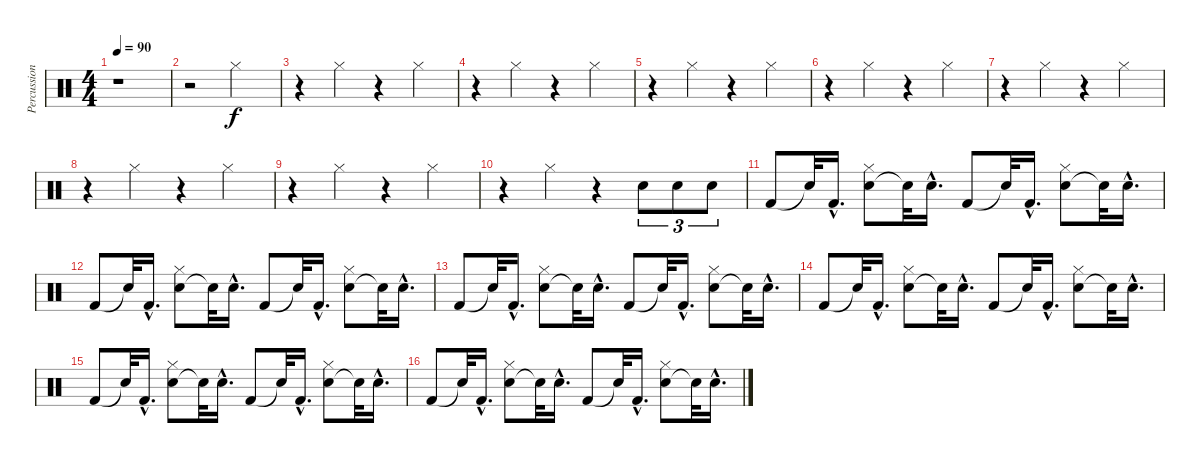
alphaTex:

\track ("Percussions" "Percussion") {instrument percussion}
\staff {score}
\articulation defaults
\ts (4 4)
\tempo 90
\clef neutral
\ks c
r.1{dy f} |
r.2 "Hi-Hat (closed)".2 |
r.4 "Hi-Hat (closed)".4 r.4 "Hi-Hat (closed)".4 |
r.4 "Hi-Hat (closed)".4 r.4 "Hi-Hat (closed)".4 |
r.4 "Hi-Hat (closed)".4 r.4 "Hi-Hat (closed)".4 |
r.4 "Hi-Hat (closed)".4 r.4 "Hi-Hat (closed)".4 |
r.4 "Hi-Hat (closed)".4 r.4 "Hi-Hat (closed)".4 |
r.4 "Hi-Hat (closed)".4 r.4 "Hi-Hat (closed)".4 |
r.4 "Hi-Hat (closed)".4 r.4 "Hi-Hat (closed)".4 |
r.4 "Hi-Hat (closed)".4 r.4 "Snare (hit) 2".8{tu (3 2)} "Snare (hit) 2".8{tu (3 2)} "Snare (hit) 2".8{tu (3 2)} |
"Kick (hit) 2".8 "Snare (hit)"{t}.32 "Kick (hit) 2"{hac}.16{d} ("Snare (hit) 2" "Hi-Hat (closed)").8 "Snare (hit)"{t}.32 "Snare (hit) 2"{hac}.16{d} "Kick (hit) 2".8 "Snare (hit)"{t}.32 "Kick (hit) 2"{hac}.16{d} ("Snare (hit) 2" "Hi-Hat (closed)").8 "Snare (hit)"{t}.32 "Snare (hit) 2"{hac}.16{d} |
"Kick (hit) 2".8 "Snare (hit)"{t}.32 "Kick (hit) 2"{hac}.16{d} ("Snare (hit) 2" "Hi-Hat (closed)").8 "Snare (hit)"{t}.32 "Snare (hit) 2"{hac}.16{d} "Kick (hit) 2".8 "Snare (hit)"{t}.32 "Kick (hit) 2"{hac}.16{d} ("Snare (hit) 2" "Hi-Hat (closed)").8 "Snare (hit)"{t}.32 "Snare (hit) 2"{hac}.16{d} |
"Kick (hit) 2".8 "Snare (hit)"{t}.32 "Kick (hit) 2"{hac}.16{d} ("Snare (hit) 2" "Hi-Hat (closed)").8 "Snare (hit)"{t}.32 "Snare (hit) 2"{hac}.16{d} "Kick (hit) 2".8 "Snare (hit)"{t}.32 "Kick (hit) 2"{hac}.16{d} ("Snare (hit) 2" "Hi-Hat (closed)").8 "Snare (hit)"{t}.32 "Snare (hit) 2"{hac}.16{d} |
"Kick (hit) 2".8 "Snare (hit)"{t}.32 "Kick (hit) 2"{hac}.16{d} ("Snare (hit) 2" "Hi-Hat (closed)").8 "Snare (hit)"{t}.32 "Snare (hit) 2"{hac}.16{d} "Kick (hit) 2".8 "Snare (hit)"{t}.32 "Kick (hit) 2"{hac}.16{d} ("Snare (hit) 2" "Hi-Hat (closed)").8 "Snare (hit)"{t}.32 "Snare (hit) 2"{hac}.16{d} |
"Kick (hit) 2".8 "Snare (hit)"{t}.32 "Kick (hit) 2"{hac}.16{d} ("Snare (hit) 2" "Hi-Hat (closed)").8 "Snare (hit)"{t}.32 "Snare (hit) 2"{hac}.16{d} "Kick (hit) 2".8 "Snare (hit)"{t}.32 "Kick (hit) 2"{hac}.16{d} ("Snare (hit) 2" "Hi-Hat (closed)").8 "Snare (hit)"{t}.32 "Snare (hit) 2"{hac}.16{d} |
"Kick (hit) 2".8 "Snare (hit)"{t}.32 "Kick (hit) 2"{hac}.16{d} ("Snare (hit) 2" "Hi-Hat (closed)").8 "Snare (hit)"{t}.32 "Snare (hit) 2"{hac}.16{d} "Kick (hit) 2".8 "Snare (hit)"{t}.32 "Kick (hit) 2"{hac}.16{d} ("Snare (hit) 2" "Hi-Hat (closed)").8 "Snare (hit)"{t}.32 "Snare (hit) 2"{hac}.16{d}
